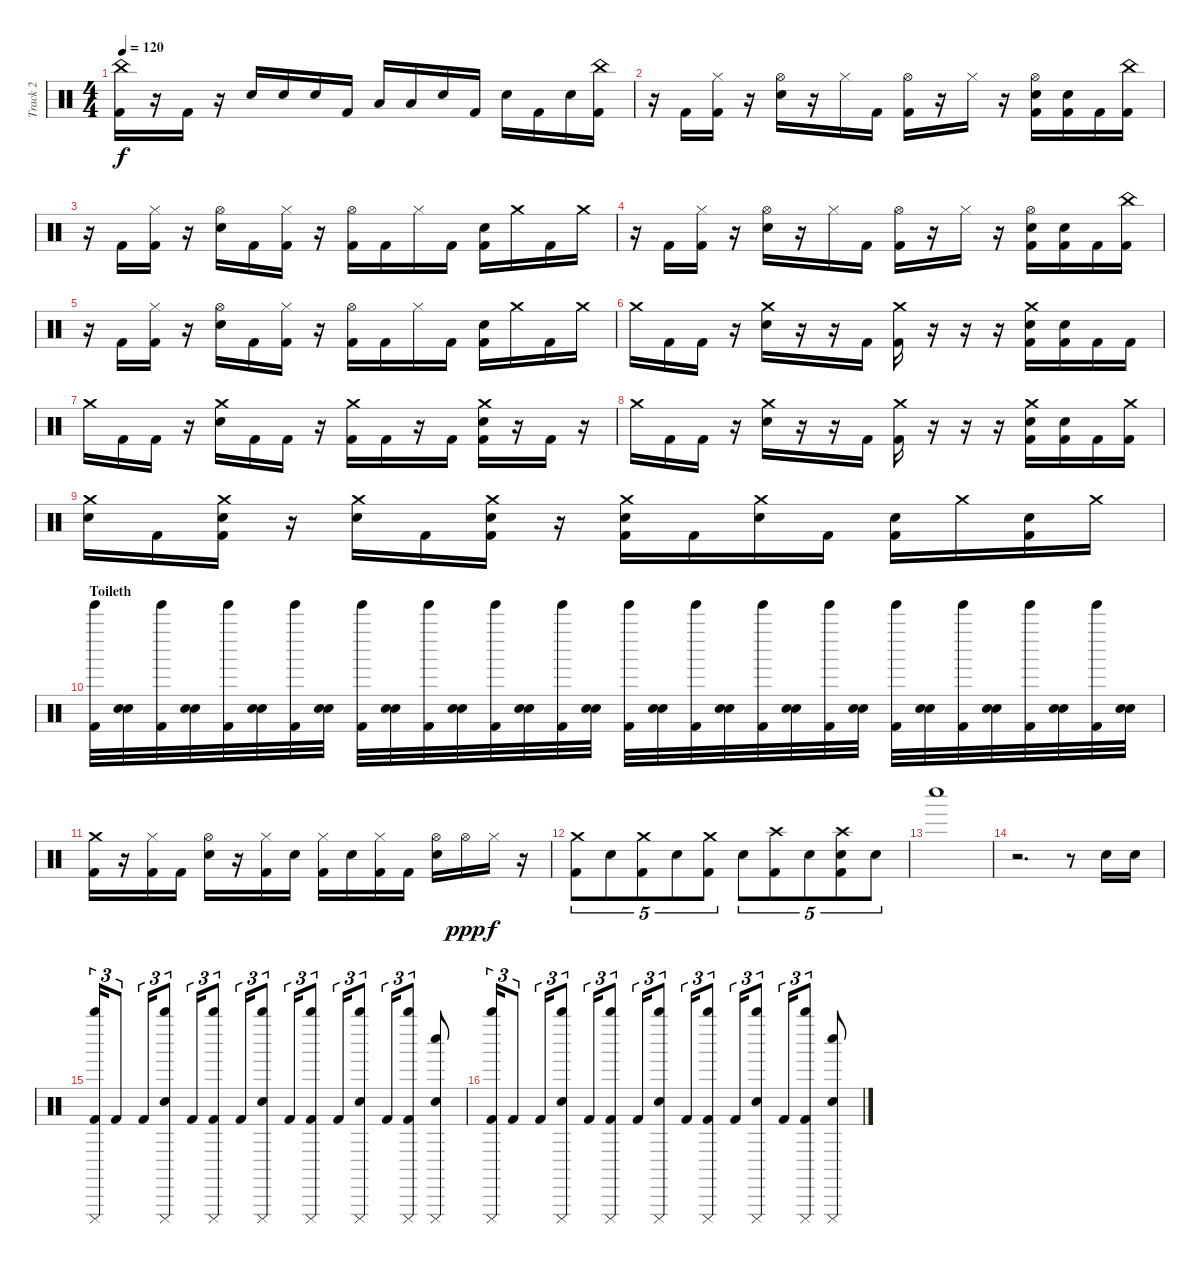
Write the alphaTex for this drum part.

\track ("Track 2" "Track 2") {instrument percussion}
\staff {score}
\articulation defaults
\ts (4 4)
\tempo 120
\clef neutral
\ks c
("China (hit)" "Kick (hit) 2").16{dy f} r.16 "Kick (hit) 2".16 r.16 "Electric Snare (hit)".16 "Electric Snare (hit)".16 "Electric Snare (hit)".16 "Kick (hit) 2".16 "Low Floor Tom (hit)".16 "Low Floor Tom (hit)".16 "Electric Snare (hit)".16 "Kick (hit) 2".16 "Electric Snare (hit)".16 "Kick (hit) 2".16 "Electric Snare (hit)".16 ("China (hit)" "Kick (hit) 2").16 |
r.16 "Kick (hit) 2".16 ("Hi-Hat (closed)" "Kick (hit) 2").16 r.16 ("Hi-Hat (open)" "Electric Snare (hit)").16 r.16 "Hi-Hat (closed)".16 "Kick (hit) 2".16 ("Hi-Hat (open)" "Kick (hit) 2").16 r.16 "Hi-Hat (closed)".16 r.16 ("Hi-Hat (open)" "Electric Snare (hit)" "Kick (hit) 2").16 ("Electric Snare (hit)" "Kick (hit) 2").16 "Kick (hit) 2".16 ("China (hit)" "Kick (hit) 2").16 |
r.16 "Kick (hit) 2".16 ("Hi-Hat (closed)" "Kick (hit) 2").16 r.16 ("Hi-Hat (open)" "Electric Snare (hit)").16 "Kick (hit) 2".16 ("Hi-Hat (closed)" "Kick (hit) 2").16 r.16 ("Hi-Hat (open)" "Kick (hit) 2").16 "Kick (hit) 2".16 "Hi-Hat (closed)".16 "Kick (hit) 2".16 ("Electric Snare (hit)" "Kick (hit) 2").16 "Crash medium (hit)".16 "Kick (hit) 2".16 "Crash medium (hit)".16 |
r.16 "Kick (hit) 2".16 ("Hi-Hat (closed)" "Kick (hit) 2").16 r.16 ("Hi-Hat (open)" "Electric Snare (hit)").16 r.16 "Hi-Hat (closed)".16 "Kick (hit) 2".16 ("Hi-Hat (open)" "Kick (hit) 2").16 r.16 "Hi-Hat (closed)".16 r.16 ("Hi-Hat (open)" "Electric Snare (hit)" "Kick (hit) 2").16 ("Electric Snare (hit)" "Kick (hit) 2").16 "Kick (hit) 2".16 ("China (hit)" "Kick (hit) 2").16 |
r.16 "Kick (hit) 2".16 ("Hi-Hat (closed)" "Kick (hit) 2").16 r.16 ("Hi-Hat (open)" "Electric Snare (hit)").16 "Kick (hit) 2".16 ("Hi-Hat (closed)" "Kick (hit) 2").16 r.16 ("Hi-Hat (open)" "Kick (hit) 2").16 "Kick (hit) 2".16 "Hi-Hat (closed)".16 "Kick (hit) 2".16 ("Electric Snare (hit)" "Kick (hit) 2").16 "Crash medium (hit)".16 "Kick (hit) 2".16 "Crash medium (hit)".16 |
"Crash medium (hit)".16 "Kick (hit) 2".16 "Kick (hit) 2".16 r.16 ("Crash medium (hit)" "Electric Snare (hit)").16 r.16 r.16 "Kick (hit) 2".16 ("Crash medium (hit)" "Kick (hit) 2").16 r.16 r.16 r.16 ("Crash medium (hit)" "Electric Snare (hit)" "Kick (hit) 2").16 ("Electric Snare (hit)" "Kick (hit) 2").16 "Kick (hit) 2".16 "Kick (hit) 2".16 |
"Crash medium (hit)".16 "Kick (hit) 2".16 "Kick (hit) 2".16 r.16 ("Crash medium (hit)" "Electric Snare (hit)").16 "Kick (hit) 2".16 "Kick (hit) 2".16 r.16 ("Crash medium (hit)" "Kick (hit) 2").16 "Kick (hit) 2".16 r.16 "Kick (hit) 2".16 ("Crash medium (hit)" "Electric Snare (hit)" "Kick (hit) 2").16 r.16 "Kick (hit) 2".16 r.16 |
"Crash medium (hit)".16 "Kick (hit) 2".16 "Kick (hit) 2".16 r.16 ("Crash medium (hit)" "Electric Snare (hit)").16 r.16 r.16 "Kick (hit) 2".16 ("Crash medium (hit)" "Kick (hit) 2").16 r.16 r.16 r.16 ("Crash medium (hit)" "Electric Snare (hit)" "Kick (hit) 2").16 ("Electric Snare (hit)" "Kick (hit) 2").16 "Kick (hit) 2".16 ("Crash medium (hit)" "Kick (hit) 2").16 |
("Crash medium (hit)" "Electric Snare (hit)").16 "Kick (hit) 2".16 ("Crash medium (hit)" "Electric Snare (hit)" "Kick (hit) 2").16 r.16 ("Crash medium (hit)" "Electric Snare (hit)").16 "Kick (hit) 2".16 ("Crash medium (hit)" "Electric Snare (hit)" "Kick (hit) 2").16 r.16 ("Crash medium (hit)" "Electric Snare (hit)" "Kick (hit) 2").16 "Kick (hit) 2".16 ("Crash medium (hit)" "Electric Snare (hit)").16 "Kick (hit) 2".16 ("Electric Snare (hit)" "Kick (hit) 2").16 "Crash medium (hit)".16 ("Electric Snare (hit)" "Kick (hit) 2").16 "Crash medium (hit)".16 |
\section ("" "Toileth")
("Tinkle Bell (hit)" "Kick (hit) 2").32 ("Hand Clap (hit)" "Snare (hit) 2").32 ("Tinkle Bell (hit)" "Kick (hit) 2").32 ("Hand Clap (hit)" "Snare (hit) 2").32 ("Tinkle Bell (hit)" "Kick (hit) 2").32 ("Hand Clap (hit)" "Snare (hit) 2").32 ("Tinkle Bell (hit)" "Kick (hit) 2").32 ("Hand Clap (hit)" "Snare (hit) 2").32 ("Tinkle Bell (hit)" "Kick (hit) 2").32 ("Hand Clap (hit)" "Snare (hit) 2").32 ("Tinkle Bell (hit)" "Kick (hit) 2").32 ("Hand Clap (hit)" "Snare (hit) 2").32 ("Tinkle Bell (hit)" "Kick (hit) 2").32 ("Hand Clap (hit)" "Snare (hit) 2").32 ("Tinkle Bell (hit)" "Kick (hit) 2").32 ("Hand Clap (hit)" "Snare (hit) 2").32 ("Tinkle Bell (hit)" "Kick (hit) 2").32 ("Hand Clap (hit)" "Snare (hit) 2").32 ("Tinkle Bell (hit)" "Kick (hit) 2").32 ("Hand Clap (hit)" "Snare (hit) 2").32 ("Tinkle Bell (hit)" "Kick (hit) 2").32 ("Hand Clap (hit)" "Snare (hit) 2").32 ("Tinkle Bell (hit)" "Kick (hit) 2").32 ("Hand Clap (hit)" "Snare (hit) 2").32 ("Tinkle Bell (hit)" "Kick (hit) 2").32 ("Hand Clap (hit)" "Snare (hit) 2").32 ("Tinkle Bell (hit)" "Kick (hit) 2").32 ("Hand Clap (hit)" "Snare (hit) 2").32 ("Tinkle Bell (hit)" "Kick (hit) 2").32 ("Hand Clap (hit)" "Snare (hit) 2").32 ("Tinkle Bell (hit)" "Kick (hit) 2").32 ("Hand Clap (hit)" "Snare (hit) 2").32 |
("Crash medium (hit)" "Kick (hit) 2").16 r.16 ("Hi-Hat (closed)" "Kick (hit) 2").16 "Kick (hit) 2".16 ("Hi-Hat (open)" "Snare (hit) 2").16 r.16 ("Hi-Hat (closed)" "Kick (hit) 2").16 "Snare (hit) 2".16 ("Hi-Hat (closed)" "Kick (hit) 2").16 "Snare (hit) 2".16 ("Hi-Hat (closed)" "Kick (hit) 2").16 "Kick (hit) 2".16 ("Hi-Hat (open)" "Snare (hit) 2").16 "Hi-Hat (open)".16{dy ppp} "Hi-Hat (closed)".16{dy f} r.16 |
("Crash medium (hit)" "Kick (hit) 2").8{tu (5 4)} "Snare (hit) 2".8{tu (5 4)} ("Crash medium (hit)" "Kick (hit) 2").8{tu (5 4)} "Snare (hit) 2".8{tu (5 4)} ("Crash medium (hit)" "Kick (hit) 2").8{tu (5 4)} "Snare (hit) 2".8{tu (5 4)} ("Crash high (hit)" "Kick (hit) 2").8{tu (5 4)} "Snare (hit) 2".8{tu (5 4)} ("Crash high (hit)" "Snare (hit) 2" "Kick (hit) 2").8{tu (5 4)} "Snare (hit) 2".8{tu (5 4)} |
"Whistle low (hit)".1 |
r.2{d} r.8 "Electric Snare (hit)".16 "Electric Snare (hit)".16 |
("Whistle high (hit)" "Cuica (mute)" "Kick (hit) 2").16{tu (3 2)} "Kick (hit) 2".8{tu (3 2)} "Kick (hit) 2".16{tu (3 2)} ("Whistle high (hit)" "Cuica (mute)" "Electric Snare (hit)").8{tu (3 2)} "Kick (hit) 2".16{tu (3 2)} ("Whistle high (hit)" "Cuica (mute)" "Kick (hit) 2").8{tu (3 2)} "Kick (hit) 2".16{tu (3 2)} ("Whistle high (hit)" "Cuica (mute)" "Electric Snare (hit)").8{tu (3 2)} "Kick (hit) 2".16{tu (3 2)} ("Whistle high (hit)" "Cuica (mute)" "Kick (hit) 2").8{tu (3 2)} "Kick (hit) 2".16{tu (3 2)} ("Whistle high (hit)" "Cuica (mute)" "Electric Snare (hit)").8{tu (3 2)} "Kick (hit) 2".16{tu (3 2)} ("Whistle high (hit)" "Cuica (mute)" "Kick (hit) 2").8{tu (3 2)} ("Whistle low (hit)" "Cuica (mute)" "Electric Snare (hit)").8 |
("Whistle high (hit)" "Cuica (mute)" "Kick (hit) 2").16{tu (3 2)} "Kick (hit) 2".8{tu (3 2)} "Kick (hit) 2".16{tu (3 2)} ("Whistle high (hit)" "Cuica (mute)" "Electric Snare (hit)").8{tu (3 2)} "Kick (hit) 2".16{tu (3 2)} ("Whistle high (hit)" "Cuica (mute)" "Kick (hit) 2").8{tu (3 2)} "Kick (hit) 2".16{tu (3 2)} ("Whistle high (hit)" "Cuica (mute)" "Electric Snare (hit)").8{tu (3 2)} "Kick (hit) 2".16{tu (3 2)} ("Whistle high (hit)" "Cuica (mute)" "Kick (hit) 2").8{tu (3 2)} "Kick (hit) 2".16{tu (3 2)} ("Whistle high (hit)" "Cuica (mute)" "Electric Snare (hit)").8{tu (3 2)} "Kick (hit) 2".16{tu (3 2)} ("Whistle high (hit)" "Cuica (mute)" "Kick (hit) 2").8{tu (3 2)} ("Whistle low (hit)" "Cuica (mute)" "Electric Snare (hit)").8
